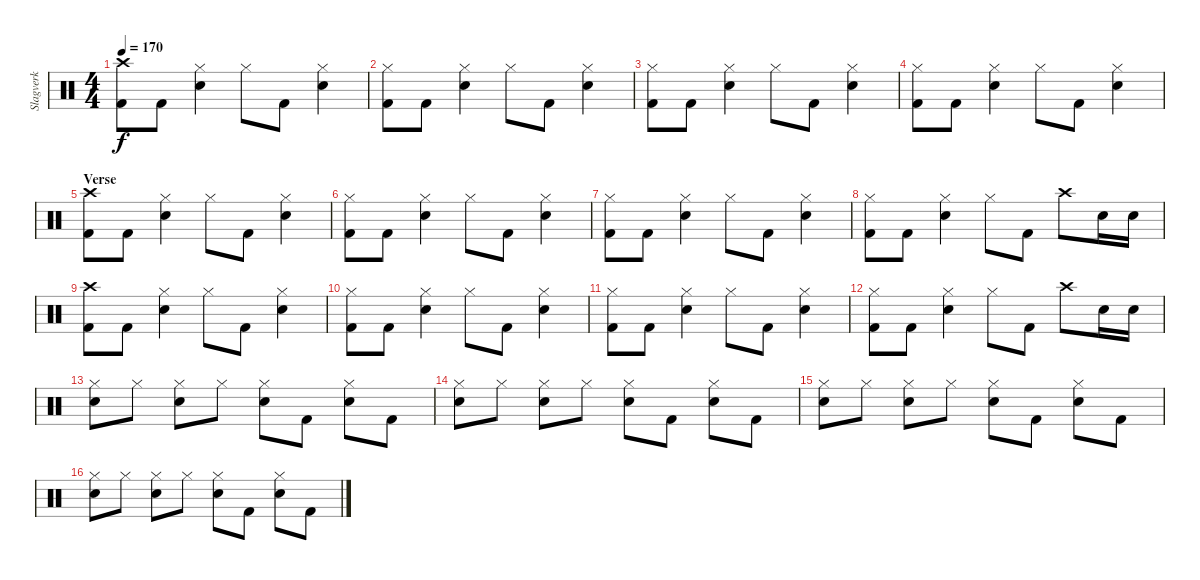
\track ("Slagverk" "Slagverk") {instrument percussion}
\staff {score}
\articulation defaults
\ts (4 4)
\tempo 170
\clef neutral
\ks c
("Kick (hit) 2" "Crash high (hit)").8{dy f} "Kick (hit) 2".8 ("Hi-Hat (closed)" "Snare (hit) 2").4 "Hi-Hat (closed)".8 "Kick (hit) 2".8 ("Hi-Hat (closed)" "Snare (hit) 2").4 |
("Kick (hit) 2" "Hi-Hat (closed)").8 "Kick (hit) 2".8 ("Hi-Hat (closed)" "Snare (hit) 2").4 "Hi-Hat (closed)".8 "Kick (hit) 2".8 ("Hi-Hat (closed)" "Snare (hit) 2").4 |
("Kick (hit) 2" "Hi-Hat (closed)").8 "Kick (hit) 2".8 ("Hi-Hat (closed)" "Snare (hit) 2").4 "Hi-Hat (closed)".8 "Kick (hit) 2".8 ("Hi-Hat (closed)" "Snare (hit) 2").4 |
("Kick (hit) 2" "Hi-Hat (closed)").8 "Kick (hit) 2".8 ("Hi-Hat (closed)" "Snare (hit) 2").4 "Hi-Hat (closed)".8 "Kick (hit) 2".8 ("Hi-Hat (closed)" "Snare (hit) 2").4 |
\section ("" "Verse")
("Kick (hit) 2" "Crash high (hit)").8 "Kick (hit) 2".8 ("Hi-Hat (closed)" "Snare (hit) 2").4 "Hi-Hat (closed)".8 "Kick (hit) 2".8 ("Hi-Hat (closed)" "Snare (hit) 2").4 |
("Kick (hit) 2" "Hi-Hat (closed)").8 "Kick (hit) 2".8 ("Hi-Hat (closed)" "Snare (hit) 2").4 "Hi-Hat (closed)".8 "Kick (hit) 2".8 ("Hi-Hat (closed)" "Snare (hit) 2").4 |
("Kick (hit) 2" "Hi-Hat (closed)").8 "Kick (hit) 2".8 ("Hi-Hat (closed)" "Snare (hit) 2").4 "Hi-Hat (closed)".8 "Kick (hit) 2".8 ("Hi-Hat (closed)" "Snare (hit) 2").4 |
("Kick (hit) 2" "Hi-Hat (closed)").8 "Kick (hit) 2".8 ("Hi-Hat (closed)" "Snare (hit) 2").4 "Hi-Hat (closed)".8 "Kick (hit) 2".8 "Crash high (hit)".8 "Snare (hit) 2".16 "Snare (hit) 2".16 |
("Kick (hit) 2" "Crash high (hit)").8 "Kick (hit) 2".8 ("Hi-Hat (closed)" "Snare (hit) 2").4 "Hi-Hat (closed)".8 "Kick (hit) 2".8 ("Hi-Hat (closed)" "Snare (hit) 2").4 |
("Kick (hit) 2" "Hi-Hat (closed)").8 "Kick (hit) 2".8 ("Hi-Hat (closed)" "Snare (hit) 2").4 "Hi-Hat (closed)".8 "Kick (hit) 2".8 ("Hi-Hat (closed)" "Snare (hit) 2").4 |
("Kick (hit) 2" "Hi-Hat (closed)").8 "Kick (hit) 2".8 ("Hi-Hat (closed)" "Snare (hit) 2").4 "Hi-Hat (closed)".8 "Kick (hit) 2".8 ("Hi-Hat (closed)" "Snare (hit) 2").4 |
("Kick (hit) 2" "Hi-Hat (closed)").8 "Kick (hit) 2".8 ("Hi-Hat (closed)" "Snare (hit) 2").4 "Hi-Hat (closed)".8 "Kick (hit) 2".8 "Crash high (hit)".8 "Snare (hit) 2".16 "Snare (hit) 2".16 |
("Hi-Hat (closed)" "Snare (hit) 2").8 "Hi-Hat (closed)".8 ("Hi-Hat (closed)" "Snare (hit) 2").8 "Hi-Hat (closed)".8 ("Hi-Hat (closed)" "Snare (hit) 2").8 "Kick (hit) 2".8 ("Hi-Hat (closed)" "Snare (hit) 2").8 "Kick (hit) 2".8 |
("Hi-Hat (closed)" "Snare (hit) 2").8 "Hi-Hat (closed)".8 ("Hi-Hat (closed)" "Snare (hit) 2").8 "Hi-Hat (closed)".8 ("Hi-Hat (closed)" "Snare (hit) 2").8 "Kick (hit) 2".8 ("Hi-Hat (closed)" "Snare (hit) 2").8 "Kick (hit) 2".8 |
("Hi-Hat (closed)" "Snare (hit) 2").8 "Hi-Hat (closed)".8 ("Hi-Hat (closed)" "Snare (hit) 2").8 "Hi-Hat (closed)".8 ("Hi-Hat (closed)" "Snare (hit) 2").8 "Kick (hit) 2".8 ("Hi-Hat (closed)" "Snare (hit) 2").8 "Kick (hit) 2".8 |
("Hi-Hat (closed)" "Snare (hit) 2").8 "Hi-Hat (closed)".8 ("Hi-Hat (closed)" "Snare (hit) 2").8 "Hi-Hat (closed)".8 ("Hi-Hat (closed)" "Snare (hit) 2").8 "Kick (hit) 2".8 ("Hi-Hat (closed)" "Snare (hit) 2").8 "Kick (hit) 2".8
